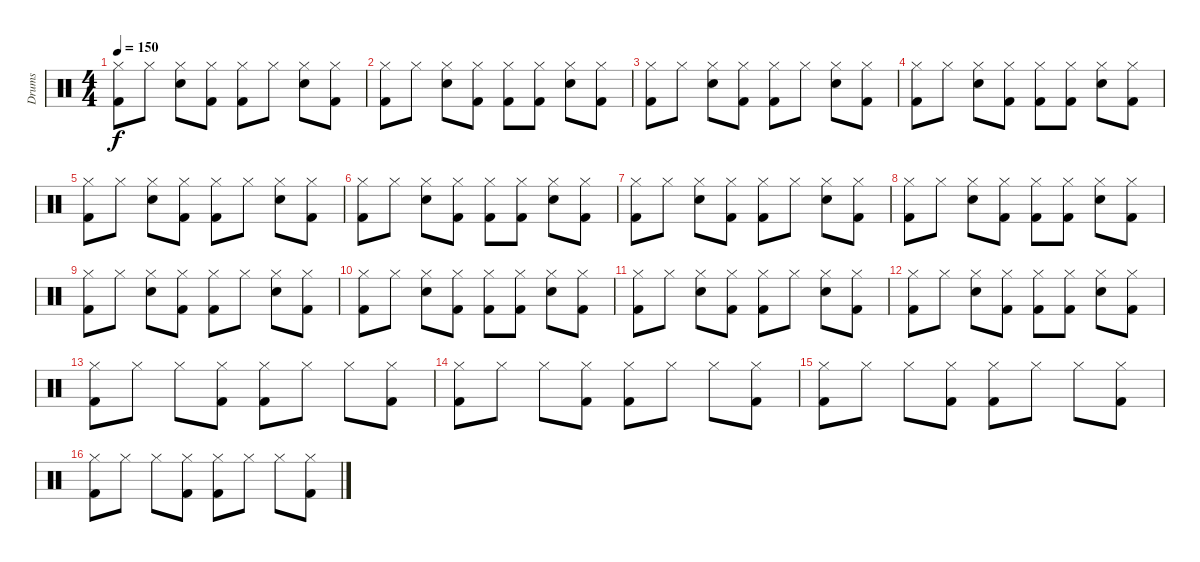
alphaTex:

\track ("Drums" "Drums") {instrument percussion}
\staff {score}
\articulation defaults
\ts (4 4)
\tempo 150
\clef neutral
\ks c
("Hi-Hat (closed)" "Kick (hit) 2").8{dy f} "Hi-Hat (closed)".8 ("Hi-Hat (closed)" "Snare (hit) 2").8 ("Hi-Hat (closed)" "Kick (hit) 2").8 ("Hi-Hat (closed)" "Kick (hit) 2").8 "Hi-Hat (closed)".8 ("Hi-Hat (closed)" "Snare (hit) 2").8 ("Hi-Hat (closed)" "Kick (hit) 2").8 |
("Hi-Hat (closed)" "Kick (hit) 2").8 "Hi-Hat (closed)".8 ("Hi-Hat (closed)" "Snare (hit) 2").8 ("Hi-Hat (closed)" "Kick (hit) 2").8 ("Hi-Hat (closed)" "Kick (hit) 2").8 ("Hi-Hat (closed)" "Kick (hit) 2").8 ("Hi-Hat (closed)" "Snare (hit) 2").8 ("Hi-Hat (closed)" "Kick (hit) 2").8 |
("Hi-Hat (closed)" "Kick (hit) 2").8 "Hi-Hat (closed)".8 ("Hi-Hat (closed)" "Snare (hit) 2").8 ("Hi-Hat (closed)" "Kick (hit) 2").8 ("Hi-Hat (closed)" "Kick (hit) 2").8 "Hi-Hat (closed)".8 ("Hi-Hat (closed)" "Snare (hit) 2").8 ("Hi-Hat (closed)" "Kick (hit) 2").8 |
("Hi-Hat (closed)" "Kick (hit) 2").8 "Hi-Hat (closed)".8 ("Hi-Hat (closed)" "Snare (hit) 2").8 ("Hi-Hat (closed)" "Kick (hit) 2").8 ("Hi-Hat (closed)" "Kick (hit) 2").8 ("Hi-Hat (closed)" "Kick (hit) 2").8 ("Hi-Hat (closed)" "Snare (hit) 2").8 ("Hi-Hat (closed)" "Kick (hit) 2").8 |
("Hi-Hat (closed)" "Kick (hit) 2").8 "Hi-Hat (closed)".8 ("Hi-Hat (closed)" "Snare (hit) 2").8 ("Hi-Hat (closed)" "Kick (hit) 2").8 ("Hi-Hat (closed)" "Kick (hit) 2").8 "Hi-Hat (closed)".8 ("Hi-Hat (closed)" "Snare (hit) 2").8 ("Hi-Hat (closed)" "Kick (hit) 2").8 |
("Hi-Hat (closed)" "Kick (hit) 2").8 "Hi-Hat (closed)".8 ("Hi-Hat (closed)" "Snare (hit) 2").8 ("Hi-Hat (closed)" "Kick (hit) 2").8 ("Hi-Hat (closed)" "Kick (hit) 2").8 ("Hi-Hat (closed)" "Kick (hit) 2").8 ("Hi-Hat (closed)" "Snare (hit) 2").8 ("Hi-Hat (closed)" "Kick (hit) 2").8 |
("Hi-Hat (closed)" "Kick (hit) 2").8 "Hi-Hat (closed)".8 ("Hi-Hat (closed)" "Snare (hit) 2").8 ("Hi-Hat (closed)" "Kick (hit) 2").8 ("Hi-Hat (closed)" "Kick (hit) 2").8 "Hi-Hat (closed)".8 ("Hi-Hat (closed)" "Snare (hit) 2").8 ("Hi-Hat (closed)" "Kick (hit) 2").8 |
("Hi-Hat (closed)" "Kick (hit) 2").8 "Hi-Hat (closed)".8 ("Hi-Hat (closed)" "Snare (hit) 2").8 ("Hi-Hat (closed)" "Kick (hit) 2").8 ("Hi-Hat (closed)" "Kick (hit) 2").8 ("Hi-Hat (closed)" "Kick (hit) 2").8 ("Hi-Hat (closed)" "Snare (hit) 2").8 ("Hi-Hat (closed)" "Kick (hit) 2").8 |
("Hi-Hat (closed)" "Kick (hit) 2").8 "Hi-Hat (closed)".8 ("Hi-Hat (closed)" "Snare (hit) 2").8 ("Hi-Hat (closed)" "Kick (hit) 2").8 ("Hi-Hat (closed)" "Kick (hit) 2").8 "Hi-Hat (closed)".8 ("Hi-Hat (closed)" "Snare (hit) 2").8 ("Hi-Hat (closed)" "Kick (hit) 2").8 |
("Hi-Hat (closed)" "Kick (hit) 2").8 "Hi-Hat (closed)".8 ("Hi-Hat (closed)" "Snare (hit) 2").8 ("Hi-Hat (closed)" "Kick (hit) 2").8 ("Hi-Hat (closed)" "Kick (hit) 2").8 ("Hi-Hat (closed)" "Kick (hit) 2").8 ("Hi-Hat (closed)" "Snare (hit) 2").8 ("Hi-Hat (closed)" "Kick (hit) 2").8 |
("Hi-Hat (closed)" "Kick (hit) 2").8 "Hi-Hat (closed)".8 ("Hi-Hat (closed)" "Snare (hit) 2").8 ("Hi-Hat (closed)" "Kick (hit) 2").8 ("Hi-Hat (closed)" "Kick (hit) 2").8 "Hi-Hat (closed)".8 ("Hi-Hat (closed)" "Snare (hit) 2").8 ("Hi-Hat (closed)" "Kick (hit) 2").8 |
("Hi-Hat (closed)" "Kick (hit) 2").8 "Hi-Hat (closed)".8 ("Hi-Hat (closed)" "Snare (hit) 2").8 ("Hi-Hat (closed)" "Kick (hit) 2").8 ("Hi-Hat (closed)" "Kick (hit) 2").8 ("Hi-Hat (closed)" "Kick (hit) 2").8 ("Hi-Hat (closed)" "Snare (hit) 2").8 ("Hi-Hat (closed)" "Kick (hit) 2").8 |
("Hi-Hat (closed)" "Kick (hit) 2").8 "Hi-Hat (closed)".8 "Hi-Hat (closed)".8 ("Hi-Hat (closed)" "Kick (hit) 2").8 ("Hi-Hat (closed)" "Kick (hit) 2").8 "Hi-Hat (closed)".8 "Hi-Hat (closed)".8 ("Hi-Hat (closed)" "Kick (hit) 2").8 |
("Hi-Hat (closed)" "Kick (hit) 2").8 "Hi-Hat (closed)".8 "Hi-Hat (closed)".8 ("Hi-Hat (closed)" "Kick (hit) 2").8 ("Hi-Hat (closed)" "Kick (hit) 2").8 "Hi-Hat (closed)".8 "Hi-Hat (closed)".8 ("Hi-Hat (closed)" "Kick (hit) 2").8 |
("Hi-Hat (closed)" "Kick (hit) 2").8 "Hi-Hat (closed)".8 "Hi-Hat (closed)".8 ("Hi-Hat (closed)" "Kick (hit) 2").8 ("Hi-Hat (closed)" "Kick (hit) 2").8 "Hi-Hat (closed)".8 "Hi-Hat (closed)".8 ("Hi-Hat (closed)" "Kick (hit) 2").8 |
("Hi-Hat (closed)" "Kick (hit) 2").8 "Hi-Hat (closed)".8 "Hi-Hat (closed)".8 ("Hi-Hat (closed)" "Kick (hit) 2").8 ("Hi-Hat (closed)" "Kick (hit) 2").8 "Hi-Hat (closed)".8 "Hi-Hat (closed)".8 ("Hi-Hat (closed)" "Kick (hit) 2").8
